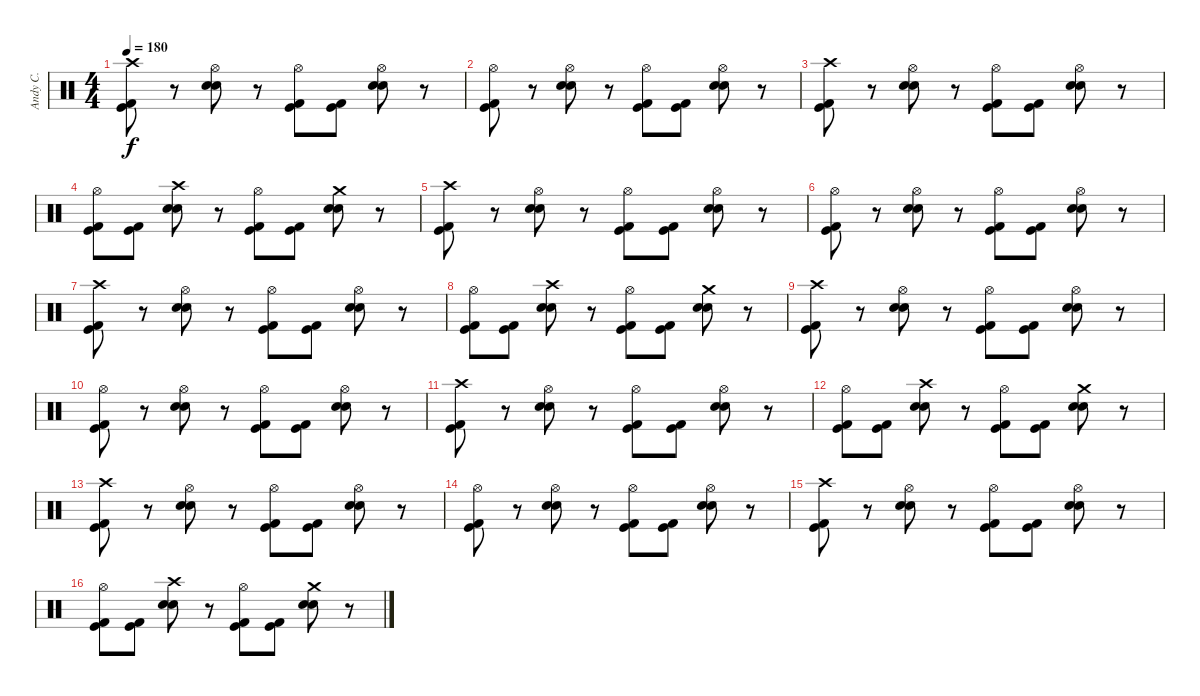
\track ("Andy C." "Andy C.") {instrument percussion}
\staff {score}
\articulation defaults
\ts (4 4)
\tempo 180
\clef neutral
\ks c
("Crash high (hit)" "Kick (hit)" "Kick (hit) 2").8{dy f} r.8 ("Hi-Hat (open)" "Snare (hit) 2" "Electric Snare (hit)").8 r.8 ("Hi-Hat (open)" "Kick (hit)" "Kick (hit) 2").8 ("Kick (hit)" "Kick (hit) 2").8 ("Hi-Hat (open)" "Snare (hit) 2" "Electric Snare (hit)").8 r.8 |
("Hi-Hat (open)" "Kick (hit)" "Kick (hit) 2").8 r.8 ("Hi-Hat (open)" "Snare (hit) 2" "Electric Snare (hit)").8 r.8 ("Hi-Hat (open)" "Kick (hit)" "Kick (hit) 2").8 ("Kick (hit)" "Kick (hit) 2").8 ("Hi-Hat (open)" "Snare (hit) 2" "Electric Snare (hit)").8 r.8 |
("Crash high (hit)" "Kick (hit)" "Kick (hit) 2").8 r.8 ("Hi-Hat (open)" "Snare (hit) 2" "Electric Snare (hit)").8 r.8 ("Hi-Hat (open)" "Kick (hit)" "Kick (hit) 2").8 ("Kick (hit)" "Kick (hit) 2").8 ("Hi-Hat (open)" "Snare (hit) 2" "Electric Snare (hit)").8 r.8 |
("Hi-Hat (open)" "Kick (hit)" "Kick (hit) 2").8 ("Kick (hit)" "Kick (hit) 2").8 ("Crash high (hit)" "Snare (hit) 2" "Electric Snare (hit)").8 r.8 ("Hi-Hat (open)" "Kick (hit)" "Kick (hit) 2").8 ("Kick (hit)" "Kick (hit) 2").8 ("Crash medium (hit)" "Snare (hit) 2" "Electric Snare (hit)").8 r.8 |
("Crash high (hit)" "Kick (hit)" "Kick (hit) 2").8 r.8 ("Hi-Hat (open)" "Snare (hit) 2" "Electric Snare (hit)").8 r.8 ("Hi-Hat (open)" "Kick (hit)" "Kick (hit) 2").8 ("Kick (hit)" "Kick (hit) 2").8 ("Hi-Hat (open)" "Snare (hit) 2" "Electric Snare (hit)").8 r.8 |
("Hi-Hat (open)" "Kick (hit)" "Kick (hit) 2").8 r.8 ("Hi-Hat (open)" "Snare (hit) 2" "Electric Snare (hit)").8 r.8 ("Hi-Hat (open)" "Kick (hit)" "Kick (hit) 2").8 ("Kick (hit)" "Kick (hit) 2").8 ("Hi-Hat (open)" "Snare (hit) 2" "Electric Snare (hit)").8 r.8 |
("Crash high (hit)" "Kick (hit)" "Kick (hit) 2").8 r.8 ("Hi-Hat (open)" "Snare (hit) 2" "Electric Snare (hit)").8 r.8 ("Hi-Hat (open)" "Kick (hit)" "Kick (hit) 2").8 ("Kick (hit)" "Kick (hit) 2").8 ("Hi-Hat (open)" "Snare (hit) 2" "Electric Snare (hit)").8 r.8 |
("Hi-Hat (open)" "Kick (hit)" "Kick (hit) 2").8 ("Kick (hit)" "Kick (hit) 2").8 ("Crash high (hit)" "Snare (hit) 2" "Electric Snare (hit)").8 r.8 ("Hi-Hat (open)" "Kick (hit)" "Kick (hit) 2").8 ("Kick (hit)" "Kick (hit) 2").8 ("Crash medium (hit)" "Snare (hit) 2" "Electric Snare (hit)").8 r.8 |
("Crash high (hit)" "Kick (hit)" "Kick (hit) 2").8 r.8 ("Hi-Hat (open)" "Snare (hit) 2" "Electric Snare (hit)").8 r.8 ("Hi-Hat (open)" "Kick (hit)" "Kick (hit) 2").8 ("Kick (hit)" "Kick (hit) 2").8 ("Hi-Hat (open)" "Snare (hit) 2" "Electric Snare (hit)").8 r.8 |
("Hi-Hat (open)" "Kick (hit)" "Kick (hit) 2").8 r.8 ("Hi-Hat (open)" "Snare (hit) 2" "Electric Snare (hit)").8 r.8 ("Hi-Hat (open)" "Kick (hit)" "Kick (hit) 2").8 ("Kick (hit)" "Kick (hit) 2").8 ("Hi-Hat (open)" "Snare (hit) 2" "Electric Snare (hit)").8 r.8 |
("Crash high (hit)" "Kick (hit)" "Kick (hit) 2").8 r.8 ("Hi-Hat (open)" "Snare (hit) 2" "Electric Snare (hit)").8 r.8 ("Hi-Hat (open)" "Kick (hit)" "Kick (hit) 2").8 ("Kick (hit)" "Kick (hit) 2").8 ("Hi-Hat (open)" "Snare (hit) 2" "Electric Snare (hit)").8 r.8 |
("Hi-Hat (open)" "Kick (hit)" "Kick (hit) 2").8 ("Kick (hit)" "Kick (hit) 2").8 ("Crash high (hit)" "Snare (hit) 2" "Electric Snare (hit)").8 r.8 ("Hi-Hat (open)" "Kick (hit)" "Kick (hit) 2").8 ("Kick (hit)" "Kick (hit) 2").8 ("Crash medium (hit)" "Snare (hit) 2" "Electric Snare (hit)").8 r.8 |
("Crash high (hit)" "Kick (hit)" "Kick (hit) 2").8 r.8 ("Hi-Hat (open)" "Snare (hit) 2" "Electric Snare (hit)").8 r.8 ("Hi-Hat (open)" "Kick (hit)" "Kick (hit) 2").8 ("Kick (hit)" "Kick (hit) 2").8 ("Hi-Hat (open)" "Snare (hit) 2" "Electric Snare (hit)").8 r.8 |
("Hi-Hat (open)" "Kick (hit)" "Kick (hit) 2").8 r.8 ("Hi-Hat (open)" "Snare (hit) 2" "Electric Snare (hit)").8 r.8 ("Hi-Hat (open)" "Kick (hit)" "Kick (hit) 2").8 ("Kick (hit)" "Kick (hit) 2").8 ("Hi-Hat (open)" "Snare (hit) 2" "Electric Snare (hit)").8 r.8 |
("Crash high (hit)" "Kick (hit)" "Kick (hit) 2").8 r.8 ("Hi-Hat (open)" "Snare (hit) 2" "Electric Snare (hit)").8 r.8 ("Hi-Hat (open)" "Kick (hit)" "Kick (hit) 2").8 ("Kick (hit)" "Kick (hit) 2").8 ("Hi-Hat (open)" "Snare (hit) 2" "Electric Snare (hit)").8 r.8 |
("Hi-Hat (open)" "Kick (hit)" "Kick (hit) 2").8 ("Kick (hit)" "Kick (hit) 2").8 ("Crash high (hit)" "Snare (hit) 2" "Electric Snare (hit)").8 r.8 ("Hi-Hat (open)" "Kick (hit)" "Kick (hit) 2").8 ("Kick (hit)" "Kick (hit) 2").8 ("Crash medium (hit)" "Snare (hit) 2" "Electric Snare (hit)").8 r.8
